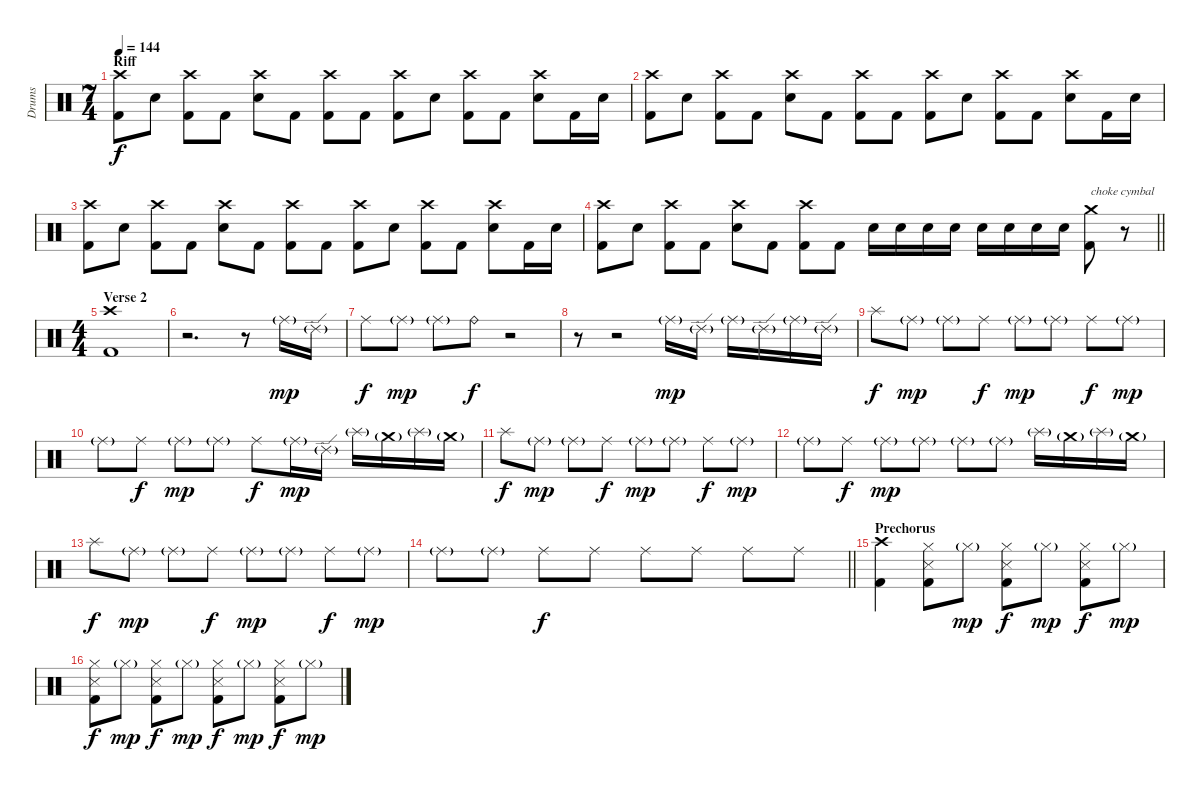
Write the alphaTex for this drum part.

\track ("Drums" "Drums") {instrument percussion}
\staff {score}
\articulation defaults
\ts (7 4)
\section ("" "Riff")
\tempo 144
\clef neutral
\ks c
("Crash high (hit)" "Kick (hit) 2").8{dy f} "Electric Snare (hit)".8 ("Crash high (hit)" "Kick (hit) 2").8 "Kick (hit) 2".8 ("Crash high (hit)" "Electric Snare (hit)").8 "Kick (hit) 2".8 ("Crash high (hit)" "Kick (hit) 2").8 "Kick (hit) 2".8 ("Crash high (hit)" "Kick (hit) 2").8 "Electric Snare (hit)".8 ("Crash high (hit)" "Kick (hit) 2").8 "Kick (hit) 2".8 ("Crash high (hit)" "Electric Snare (hit)").8 "Kick (hit) 2".16 "Electric Snare (hit)".16 |
("Crash high (hit)" "Kick (hit) 2").8 "Electric Snare (hit)".8 ("Crash high (hit)" "Kick (hit) 2").8 "Kick (hit) 2".8 ("Crash high (hit)" "Electric Snare (hit)").8 "Kick (hit) 2".8 ("Crash high (hit)" "Kick (hit) 2").8 "Kick (hit) 2".8 ("Crash high (hit)" "Kick (hit) 2").8 "Electric Snare (hit)".8 ("Crash high (hit)" "Kick (hit) 2").8 "Kick (hit) 2".8 ("Crash high (hit)" "Electric Snare (hit)").8 "Kick (hit) 2".16 "Electric Snare (hit)".16 |
("Crash high (hit)" "Kick (hit) 2").8 "Electric Snare (hit)".8 ("Crash high (hit)" "Kick (hit) 2").8 "Kick (hit) 2".8 ("Crash high (hit)" "Electric Snare (hit)").8 "Kick (hit) 2".8 ("Crash high (hit)" "Kick (hit) 2").8 "Kick (hit) 2".8 ("Crash high (hit)" "Kick (hit) 2").8 "Electric Snare (hit)".8 ("Crash high (hit)" "Kick (hit) 2").8 "Kick (hit) 2".8 ("Crash high (hit)" "Electric Snare (hit)").8 "Kick (hit) 2".16 "Electric Snare (hit)".16 |
\barLineRight lightlight
("Crash high (hit)" "Kick (hit) 2").8 "Electric Snare (hit)".8 ("Crash high (hit)" "Kick (hit) 2").8 "Kick (hit) 2".8 ("Crash high (hit)" "Electric Snare (hit)").8 "Kick (hit) 2".8 ("Crash high (hit)" "Kick (hit) 2").8 "Kick (hit) 2".8 "Electric Snare (hit)".16 "Electric Snare (hit)".16 "Electric Snare (hit)".16 "Electric Snare (hit)".16 "Electric Snare (hit)".16 "Electric Snare (hit)".16 "Electric Snare (hit)".16 "Electric Snare (hit)".16 ("Crash medium (hit)" "Kick (hit) 2").8{txt "choke cymbal"} r.8{volume 0} |
\ts (4 4)
\section ("" "Verse 2")
("Crash high (hit)" "Kick (hit) 2").1{volume 14} |
r.2{d} r.8 "Ride (middle)"{g}.16{dy mp} "Ride (edge) 2"{g}.16 |
"Ride (middle)".8{dy f} "Ride (middle)"{g}.8{dy mp} "Ride (middle)"{g}.8 "Ride (bell)".8{dy f} r.2 |
r.8 r.2 "Ride (middle)"{g}.16{dy mp} "Ride (edge) 2"{g}.16 "Ride (middle)"{g}.16 "Ride (edge) 2"{g}.16 "Ride (middle)"{g}.16 "Ride (edge) 2"{g}.16 |
"Splash (hit)".8{dy f} "Ride (middle)"{g}.8{dy mp} "Ride (middle)"{g}.8 "Ride (middle)".8{dy f} "Ride (middle)"{g}.8{dy mp} "Ride (middle)"{g}.8 "Ride (middle)".8{dy f} "Ride (middle)"{g}.8{dy mp} |
"Ride (middle)"{g}.8 "Ride (middle)".8{dy f} "Ride (middle)"{g}.8{dy mp} "Ride (middle)"{g}.8 "Ride (middle)".8{dy f} "Ride (middle)"{g}.16{dy mp} "Ride (edge) 2"{g}.16 "Splash (hit)"{g}.16 "Crash medium (hit)"{g}.16 "Splash (hit)"{g}.16 "Crash medium (hit)"{g}.16 |
"Splash (hit)".8{dy f} "Ride (middle)"{g}.8{dy mp} "Ride (middle)"{g}.8 "Ride (middle)".8{dy f} "Ride (middle)"{g}.8{dy mp} "Ride (middle)"{g}.8 "Ride (middle)".8{dy f} "Ride (middle)"{g}.8{dy mp} |
"Ride (middle)"{g}.8 "Ride (middle)".8{dy f} "Ride (middle)"{g}.8{dy mp} "Ride (middle)"{g}.8 "Ride (middle)"{g}.8 "Ride (middle)"{g}.8 "Splash (hit)"{g}.16 "Crash medium (hit)"{g}.16 "Splash (hit)"{g}.16 "Crash medium (hit)"{g}.16 |
"Splash (hit)".8{dy f} "Ride (middle)"{g}.8{dy mp} "Ride (middle)"{g}.8 "Ride (middle)".8{dy f} "Ride (middle)"{g}.8{dy mp} "Ride (middle)"{g}.8 "Ride (middle)".8{dy f} "Ride (middle)"{g}.8{dy mp} |
\barLineRight lightlight "Ride (middle)"{g}.8 "Ride (middle)"{g}.8 "Ride (middle)".8{dy f} "Ride (middle)".8 "Ride (middle)".8 "Ride (middle)".8 "Ride (middle)".8 "Ride (middle)".8
|
\section ("" "Prechorus")
("Crash high (hit)" "Kick (hit) 2").4 ("Hi-Hat (closed)" "Snare (side stick) 3" "Kick (hit) 2").8 "Hi-Hat (closed)"{g}.8{dy mp} ("Hi-Hat (closed)" "Snare (side stick) 3" "Kick (hit) 2").8{dy f} "Hi-Hat (closed)"{g}.8{dy mp} ("Hi-Hat (closed)" "Snare (side stick) 3" "Kick (hit) 2").8{dy f} "Hi-Hat (closed)"{g}.8{dy mp} |
("Hi-Hat (closed)" "Snare (side stick) 3" "Kick (hit) 2").8{dy f} "Hi-Hat (closed)"{g}.8{dy mp} ("Hi-Hat (closed)" "Snare (side stick) 3" "Kick (hit) 2").8{dy f} "Hi-Hat (closed)"{g}.8{dy mp} ("Hi-Hat (closed)" "Snare (side stick) 3" "Kick (hit) 2").8{dy f} "Hi-Hat (closed)"{g}.8{dy mp} ("Hi-Hat (closed)" "Snare (side stick) 3" "Kick (hit) 2").8{dy f} "Hi-Hat (closed)"{g}.8{dy mp}
